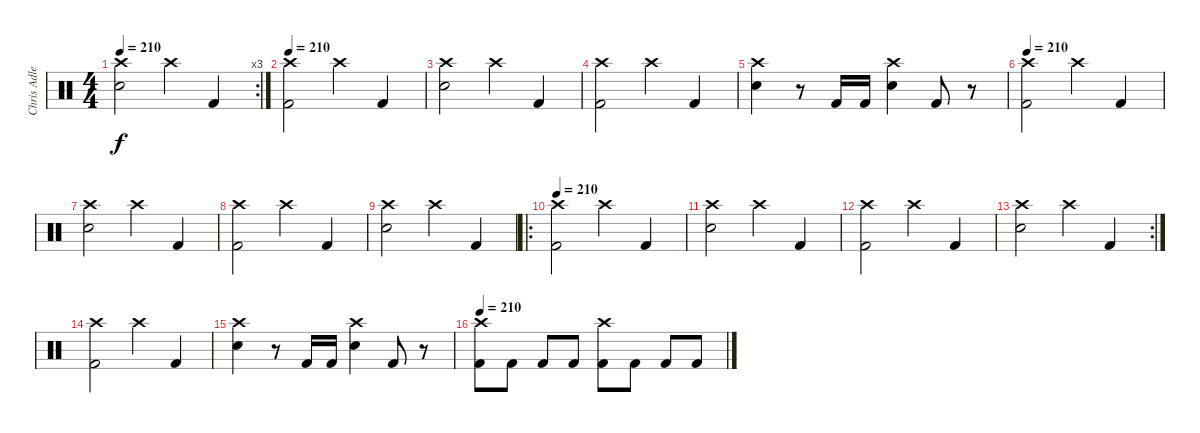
\track ("Chris Adler" "Chris Adle") {instrument percussion}
\staff {score}
\articulation defaults
\rc 3
\ts (4 4)
\tempo 210
\clef neutral
\ks c
("Crash high (hit)" "Snare (hit) 2").2{dy f} "Crash high (hit)".4 "Kick (hit) 2".4 |
\tempo 210
("Crash high (hit)" "Kick (hit) 2").2 "Crash high (hit)".4 "Kick (hit) 2".4 |
("Crash high (hit)" "Snare (hit) 2").2 "Crash high (hit)".4 "Kick (hit) 2".4 |
("Crash high (hit)" "Kick (hit) 2").2 "Crash high (hit)".4 "Kick (hit) 2".4 |
("Crash high (hit)" "Snare (hit) 2").4 r.8 "Kick (hit) 2".16 "Kick (hit) 2".16 ("Crash high (hit)" "Snare (hit) 2").4 "Kick (hit) 2".8 r.8 |
\tempo 210
("Crash high (hit)" "Kick (hit) 2").2 "Crash high (hit)".4 "Kick (hit) 2".4 |
("Crash high (hit)" "Snare (hit) 2").2 "Crash high (hit)".4 "Kick (hit) 2".4 |
("Crash high (hit)" "Kick (hit) 2").2 "Crash high (hit)".4 "Kick (hit) 2".4 |
("Crash high (hit)" "Snare (hit) 2").2 "Crash high (hit)".4 "Kick (hit) 2".4 |
\ro
\tempo 210
("Crash high (hit)" "Kick (hit) 2").2 "Crash high (hit)".4 "Kick (hit) 2".4 |
("Crash high (hit)" "Snare (hit) 2").2 "Crash high (hit)".4 "Kick (hit) 2".4 |
("Crash high (hit)" "Kick (hit) 2").2 "Crash high (hit)".4 "Kick (hit) 2".4 |
\rc 2
("Crash high (hit)" "Snare (hit) 2").2 "Crash high (hit)".4 "Kick (hit) 2".4 |
("Crash high (hit)" "Kick (hit) 2").2 "Crash high (hit)".4 "Kick (hit) 2".4 |
("Crash high (hit)" "Snare (hit) 2").4 r.8 "Kick (hit) 2".16 "Kick (hit) 2".16 ("Crash high (hit)" "Snare (hit) 2").4 "Kick (hit) 2".8 r.8 |
\tempo 210
("Crash high (hit)" "Kick (hit) 2").8 "Kick (hit) 2".8 "Kick (hit) 2".8 "Kick (hit) 2".8 ("Crash high (hit)" "Kick (hit) 2").8 "Kick (hit) 2".8 "Kick (hit) 2".8 "Kick (hit) 2".8
